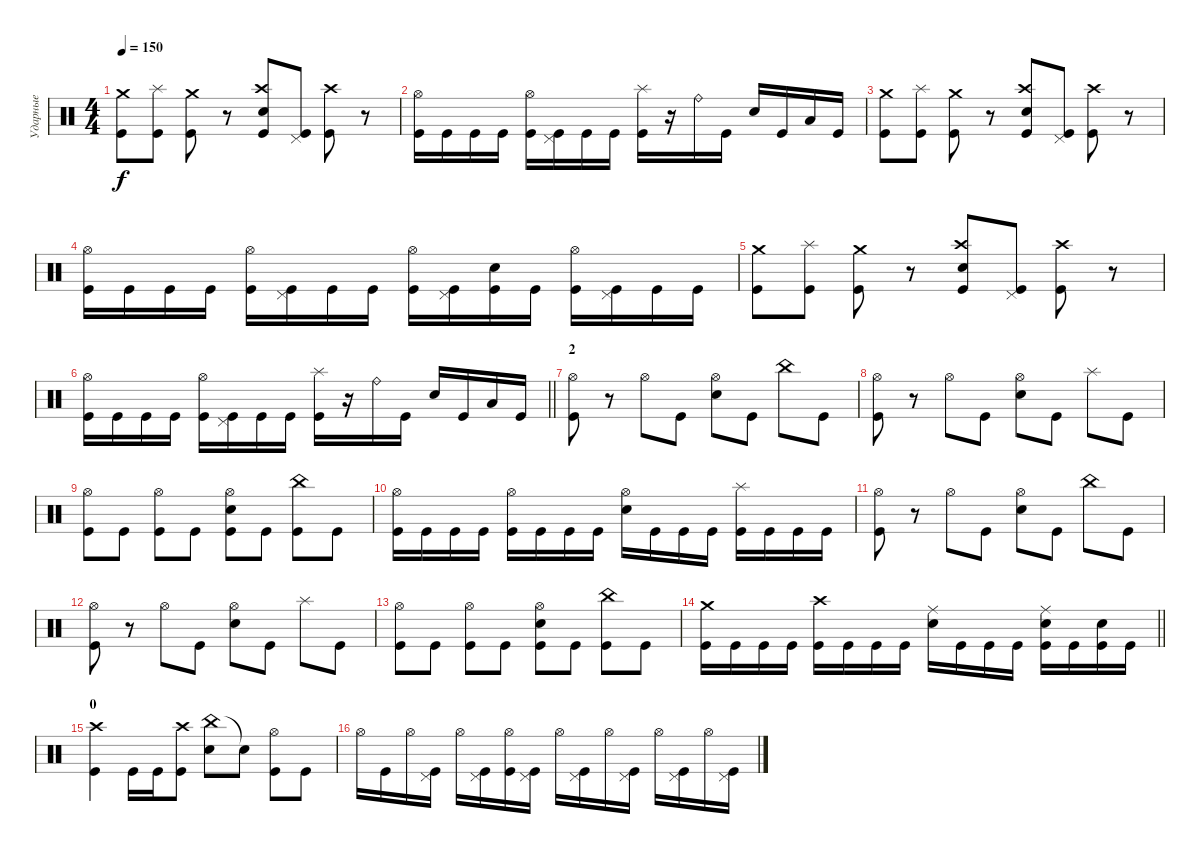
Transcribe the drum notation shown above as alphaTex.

\track ("Ударные" "Ударные") {instrument percussion}
\staff {score}
\articulation defaults
\ts (4 4)
\tempo 150
\clef neutral
\ks c
("Crash medium (hit)" "Kick (hit)").8{dy f} ("Splash (hit)" "Kick (hit)").8 ("Crash medium (hit)" "Kick (hit)").8 r.8 ("Crash high (hit)" "Electric Snare (hit)" "Kick (hit)").8 ("Pedal Hi-Hat (hit)" "Kick (hit)").8 ("Crash high (hit)" "Kick (hit)").8 r.8 |
("Hi-Hat (open)" "Kick (hit)").16 "Kick (hit)".16 "Kick (hit)".16 "Kick (hit)".16 ("Hi-Hat (open)" "Kick (hit)").16 ("Pedal Hi-Hat (hit)" "Kick (hit)").16 "Kick (hit)".16 "Kick (hit)".16 ("Splash (hit)" "Kick (hit)").16 r.16 "Ride (bell)".16 "Kick (hit)".16 "Electric Snare (hit)".16 "Kick (hit)".16 "Low Tom (hit)".16 "Kick (hit)".16 |
("Crash medium (hit)" "Kick (hit)").8 ("Splash (hit)" "Kick (hit)").8 ("Crash medium (hit)" "Kick (hit)").8 r.8 ("Crash high (hit)" "Electric Snare (hit)" "Kick (hit)").8 ("Pedal Hi-Hat (hit)" "Kick (hit)").8 ("Crash high (hit)" "Kick (hit)").8 r.8 |
("Hi-Hat (open)" "Kick (hit)").16 "Kick (hit)".16 "Kick (hit)".16 "Kick (hit)".16 ("Hi-Hat (open)" "Kick (hit)").16 ("Pedal Hi-Hat (hit)" "Kick (hit)").16 "Kick (hit)".16 "Kick (hit)".16 ("Hi-Hat (open)" "Kick (hit)").16 ("Pedal Hi-Hat (hit)" "Kick (hit)").16 ("Electric Snare (hit)" "Kick (hit)").16 "Kick (hit)".16 ("Hi-Hat (open)" "Kick (hit)").16 ("Pedal Hi-Hat (hit)" "Kick (hit)").16 "Kick (hit)".16 "Kick (hit)".16 |
("Crash medium (hit)" "Kick (hit)").8 ("Splash (hit)" "Kick (hit)").8 ("Crash medium (hit)" "Kick (hit)").8 r.8 ("Crash high (hit)" "Electric Snare (hit)" "Kick (hit)").8 ("Pedal Hi-Hat (hit)" "Kick (hit)").8 ("Crash high (hit)" "Kick (hit)").8 r.8 |
\barLineRight lightlight
("Hi-Hat (open)" "Kick (hit)").16 "Kick (hit)".16 "Kick (hit)".16 "Kick (hit)".16 ("Hi-Hat (open)" "Kick (hit)").16 ("Pedal Hi-Hat (hit)" "Kick (hit)").16 "Kick (hit)".16 "Kick (hit)".16 ("Splash (hit)" "Kick (hit)").16 r.16 "Ride (bell)".16 "Kick (hit)".16 "Electric Snare (hit)".16 "Kick (hit)".16 "Low Tom (hit)".16 "Kick (hit)".16 |
\section ("" "2")
("Hi-Hat (open)" "Kick (hit)").8 r.8 "Hi-Hat (open)".8 "Kick (hit)".8 ("Hi-Hat (open)" "Electric Snare (hit)").8 "Kick (hit)".8 "China (hit)".8 "Kick (hit)".8 |
("Hi-Hat (open)" "Kick (hit)").8 r.8 "Hi-Hat (open)".8 "Kick (hit)".8 ("Hi-Hat (open)" "Electric Snare (hit)").8 "Kick (hit)".8 "Splash (hit)".8 "Kick (hit)".8 |
("Hi-Hat (open)" "Kick (hit)").8 "Kick (hit)".8 ("Hi-Hat (open)" "Kick (hit)").8 "Kick (hit)".8 ("Hi-Hat (open)" "Electric Snare (hit)" "Kick (hit)").8 "Kick (hit)".8 ("China (hit)" "Kick (hit)").8 "Kick (hit)".8 |
("Hi-Hat (open)" "Kick (hit)").16 "Kick (hit)".16 "Kick (hit)".16 "Kick (hit)".16 ("Hi-Hat (open)" "Kick (hit)").16 "Kick (hit)".16 "Kick (hit)".16 "Kick (hit)".16 ("Hi-Hat (open)" "Electric Snare (hit)").16 "Kick (hit)".16 "Kick (hit)".16 "Kick (hit)".16 ("Splash (hit)" "Kick (hit)").16 "Kick (hit)".16 "Kick (hit)".16 "Kick (hit)".16 |
("Hi-Hat (open)" "Kick (hit)").8 r.8 "Hi-Hat (open)".8 "Kick (hit)".8 ("Hi-Hat (open)" "Electric Snare (hit)").8 "Kick (hit)".8 "China (hit)".8 "Kick (hit)".8 |
("Hi-Hat (open)" "Kick (hit)").8 r.8 "Hi-Hat (open)".8 "Kick (hit)".8 ("Hi-Hat (open)" "Electric Snare (hit)").8 "Kick (hit)".8 "Splash (hit)".8 "Kick (hit)".8 |
("Hi-Hat (open)" "Kick (hit)").8 "Kick (hit)".8 ("Hi-Hat (open)" "Kick (hit)").8 "Kick (hit)".8 ("Hi-Hat (open)" "Electric Snare (hit)" "Kick (hit)").8 "Kick (hit)".8 ("China (hit)" "Kick (hit)").8 "Kick (hit)".8 |
\barLineRight lightlight
("Crash medium (hit)" "Kick (hit)").16 "Kick (hit)".16 "Kick (hit)".16 "Kick (hit)".16 ("Crash high (hit)" "Kick (hit)").16 "Kick (hit)".16 "Kick (hit)".16 "Kick (hit)".16 ("Ride (middle)" "Electric Snare (hit)").16 "Kick (hit)".16 "Kick (hit)".16 "Kick (hit)".16 ("Ride (middle)" "Electric Snare (hit)" "Kick (hit)").16 "Kick (hit)".16 ("Electric Snare (hit)" "Kick (hit)").16 "Kick (hit)".16 |
\section ("" "0")
("Crash high (hit)" "Kick (hit)").4 "Kick (hit)".16 "Kick (hit)".16 ("Crash high (hit)" "Kick (hit)").8 ("China (hit)" "Electric Snare (hit)").8 "Snare (hit)"{t}.8 ("Hi-Hat (open)" "Kick (hit)").8 "Kick (hit)".8 |
"Hi-Hat (open)".16 "Kick (hit)".16 "Hi-Hat (open)".16 ("Pedal Hi-Hat (hit)" "Kick (hit)").16 "Hi-Hat (open)".16 ("Pedal Hi-Hat (hit)" "Kick (hit)").16 ("Hi-Hat (open)" "Kick (hit)").16 ("Pedal Hi-Hat (hit)" "Kick (hit)").16 "Hi-Hat (open)".16 ("Pedal Hi-Hat (hit)" "Kick (hit)").16 "Hi-Hat (open)".16 ("Pedal Hi-Hat (hit)" "Kick (hit)").16 "Hi-Hat (open)".16 ("Pedal Hi-Hat (hit)" "Kick (hit)").16 "Hi-Hat (open)".16 ("Pedal Hi-Hat (hit)" "Kick (hit)").16
